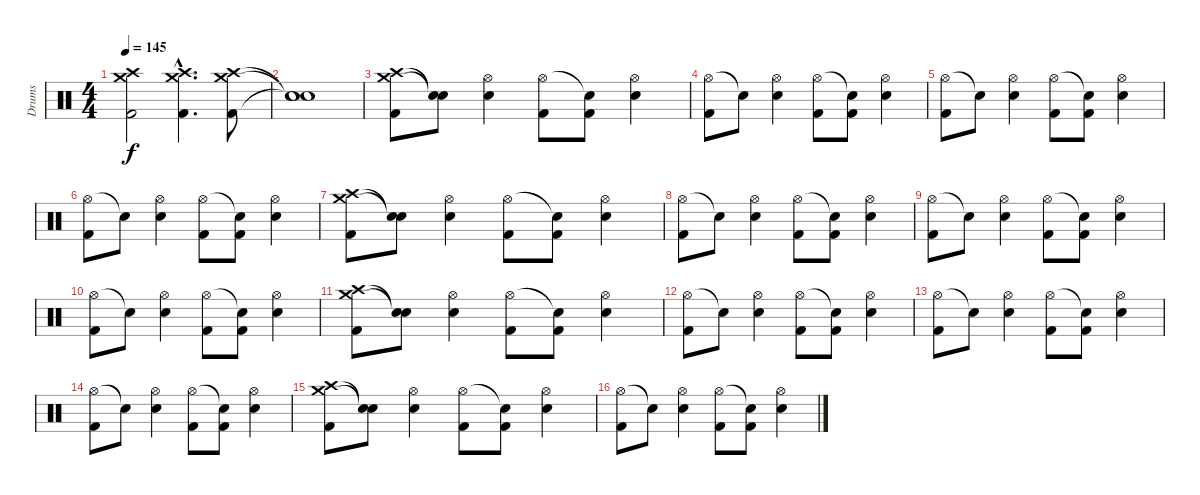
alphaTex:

\track ("Drums" "Drums") {instrument percussion}
\staff {score}
\articulation defaults
\ts (4 4)
\tempo 145
\clef neutral
\ks c
("Crash high (hit)" "Crash medium (hit)" "Kick (hit) 2").2{dy f} ("Crash high (hit)"{hac} "Crash medium (hit)"{hac} "Kick (hit) 2"{hac}).4{d} ("Crash high (hit)" "Crash medium (hit)" "Kick (hit) 2").8 |
("Snare (hit)"{t} "Snare (hit)"{t} "Snare (hit)"{t}).1 |
("Crash medium (hit)" "Crash high (hit)" "Kick (hit) 2").8 ("Snare (hit)"{t} "Snare (hit)"{t}).8 ("Hi-Hat (open)" "Electric Snare (hit)").4 ("Hi-Hat (open)" "Kick (hit) 2").8 ("Snare (hit)"{t} "Kick (hit) 2").8 ("Hi-Hat (open)" "Electric Snare (hit)").4 |
("Hi-Hat (open)" "Kick (hit) 2").8 "Snare (hit)"{t}.8 ("Hi-Hat (open)" "Electric Snare (hit)").4 ("Hi-Hat (open)" "Kick (hit) 2").8 ("Snare (hit)"{t} "Kick (hit) 2").8 ("Hi-Hat (open)" "Electric Snare (hit)").4 |
("Hi-Hat (open)" "Kick (hit) 2").8 "Snare (hit)"{t}.8 ("Hi-Hat (open)" "Electric Snare (hit)").4 ("Hi-Hat (open)" "Kick (hit) 2").8 ("Snare (hit)"{t} "Kick (hit) 2").8 ("Hi-Hat (open)" "Electric Snare (hit)").4 |
("Hi-Hat (open)" "Kick (hit) 2").8 "Snare (hit)"{t}.8 ("Hi-Hat (open)" "Electric Snare (hit)").4 ("Hi-Hat (open)" "Kick (hit) 2").8 ("Snare (hit)"{t} "Kick (hit) 2").8 ("Hi-Hat (open)" "Electric Snare (hit)").4 |
("Crash medium (hit)" "Crash high (hit)" "Kick (hit) 2").8 ("Snare (hit)"{t} "Snare (hit)"{t}).8 ("Hi-Hat (open)" "Electric Snare (hit)").4 ("Hi-Hat (open)" "Kick (hit) 2").8 ("Snare (hit)"{t} "Kick (hit) 2").8 ("Hi-Hat (open)" "Electric Snare (hit)").4 |
("Hi-Hat (open)" "Kick (hit) 2").8 "Snare (hit)"{t}.8 ("Hi-Hat (open)" "Electric Snare (hit)").4 ("Hi-Hat (open)" "Kick (hit) 2").8 ("Snare (hit)"{t} "Kick (hit) 2").8 ("Hi-Hat (open)" "Electric Snare (hit)").4 |
("Hi-Hat (open)" "Kick (hit) 2").8 "Snare (hit)"{t}.8 ("Hi-Hat (open)" "Electric Snare (hit)").4 ("Hi-Hat (open)" "Kick (hit) 2").8 ("Snare (hit)"{t} "Kick (hit) 2").8 ("Hi-Hat (open)" "Electric Snare (hit)").4 |
("Hi-Hat (open)" "Kick (hit) 2").8 "Snare (hit)"{t}.8 ("Hi-Hat (open)" "Electric Snare (hit)").4 ("Hi-Hat (open)" "Kick (hit) 2").8 ("Snare (hit)"{t} "Kick (hit) 2").8 ("Hi-Hat (open)" "Electric Snare (hit)").4 |
("Crash medium (hit)" "Crash high (hit)" "Kick (hit) 2").8 ("Snare (hit)"{t} "Snare (hit)"{t}).8 ("Hi-Hat (open)" "Electric Snare (hit)").4 ("Hi-Hat (open)" "Kick (hit) 2").8 ("Snare (hit)"{t} "Kick (hit) 2").8 ("Hi-Hat (open)" "Electric Snare (hit)").4 |
("Hi-Hat (open)" "Kick (hit) 2").8 "Snare (hit)"{t}.8 ("Hi-Hat (open)" "Electric Snare (hit)").4 ("Hi-Hat (open)" "Kick (hit) 2").8 ("Snare (hit)"{t} "Kick (hit) 2").8 ("Hi-Hat (open)" "Electric Snare (hit)").4 |
("Hi-Hat (open)" "Kick (hit) 2").8 "Snare (hit)"{t}.8 ("Hi-Hat (open)" "Electric Snare (hit)").4 ("Hi-Hat (open)" "Kick (hit) 2").8 ("Snare (hit)"{t} "Kick (hit) 2").8 ("Hi-Hat (open)" "Electric Snare (hit)").4 |
("Hi-Hat (open)" "Kick (hit) 2").8 "Snare (hit)"{t}.8 ("Hi-Hat (open)" "Electric Snare (hit)").4 ("Hi-Hat (open)" "Kick (hit) 2").8 ("Snare (hit)"{t} "Kick (hit) 2").8 ("Hi-Hat (open)" "Electric Snare (hit)").4 |
("Crash medium (hit)" "Crash high (hit)" "Kick (hit) 2").8 ("Snare (hit)"{t} "Snare (hit)"{t}).8 ("Hi-Hat (open)" "Electric Snare (hit)").4 ("Hi-Hat (open)" "Kick (hit) 2").8 ("Snare (hit)"{t} "Kick (hit) 2").8 ("Hi-Hat (open)" "Electric Snare (hit)").4 |
("Hi-Hat (open)" "Kick (hit) 2").8 "Snare (hit)"{t}.8 ("Hi-Hat (open)" "Electric Snare (hit)").4 ("Hi-Hat (open)" "Kick (hit) 2").8 ("Snare (hit)"{t} "Kick (hit) 2").8 ("Hi-Hat (open)" "Electric Snare (hit)").4
